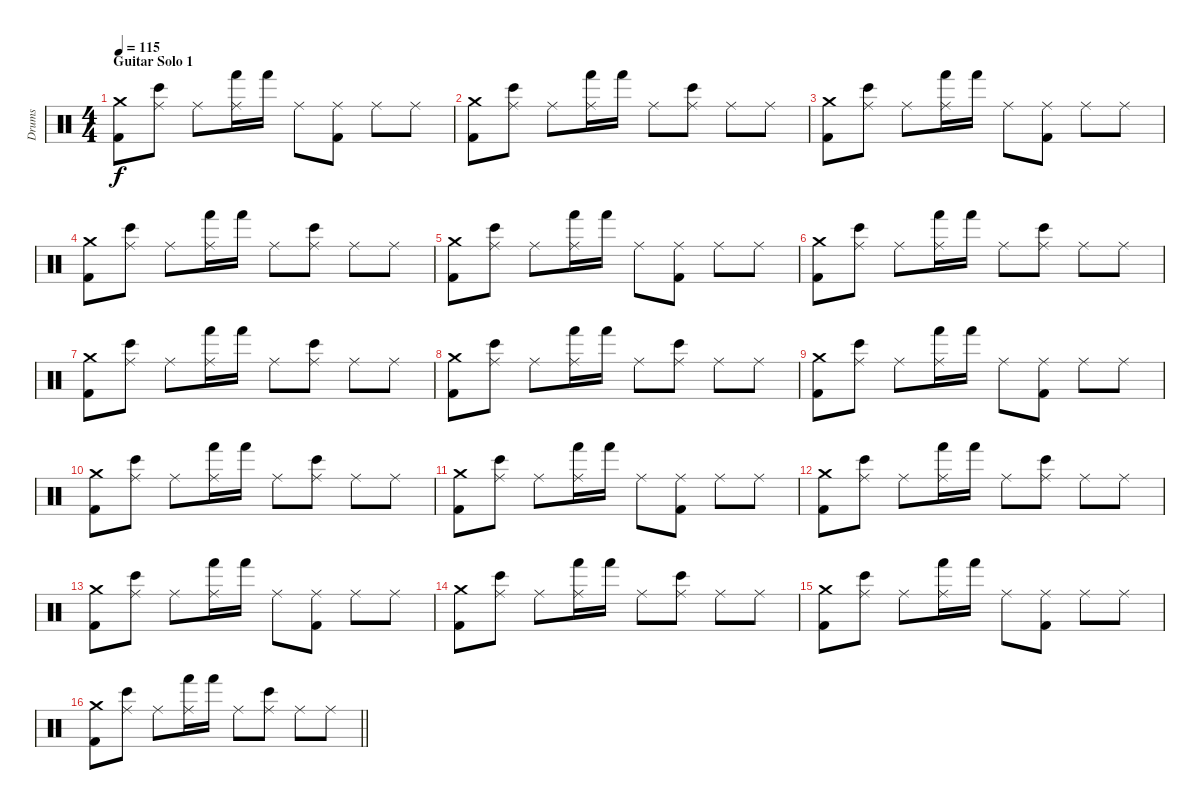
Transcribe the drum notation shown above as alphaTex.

\track ("Drums" "Drums") {instrument percussion}
\staff {score}
\articulation defaults
\ts (4 4)
\section ("" "Guitar Solo 1")
\tempo 115
\clef neutral
\ks c
("Crash medium (hit)" "Kick (hit) 2").8{dy f} ("Ride (middle)" "Bongo High (hit)").8 "Ride (middle)".8 ("Ride (middle)" "Hand (hit)").16 "Hand (hit)".16 "Ride (middle)".8 ("Ride (middle)" "Kick (hit) 2").8 "Ride (middle)".8 "Ride (middle)".8 |
("Crash medium (hit)" "Kick (hit) 2").8 ("Ride (middle)" "Bongo High (hit)").8 "Ride (middle)".8 ("Ride (middle)" "Hand (hit)").16 "Hand (hit)".16 "Ride (middle)".8 ("Ride (middle)" "Bongo High (hit)").8 "Ride (middle)".8 "Ride (middle)".8 |
("Crash medium (hit)" "Kick (hit) 2").8 ("Ride (middle)" "Bongo High (hit)").8 "Ride (middle)".8 ("Ride (middle)" "Hand (hit)").16 "Hand (hit)".16 "Ride (middle)".8 ("Ride (middle)" "Kick (hit) 2").8 "Ride (middle)".8 "Ride (middle)".8 |
("Crash medium (hit)" "Kick (hit) 2").8 ("Ride (middle)" "Bongo High (hit)").8 "Ride (middle)".8 ("Ride (middle)" "Hand (hit)").16 "Hand (hit)".16 "Ride (middle)".8 ("Ride (middle)" "Bongo High (hit)").8 "Ride (middle)".8 "Ride (middle)".8 |
("Crash medium (hit)" "Kick (hit) 2").8 ("Ride (middle)" "Bongo High (hit)").8 "Ride (middle)".8 ("Ride (middle)" "Hand (hit)").16 "Hand (hit)".16 "Ride (middle)".8 ("Ride (middle)" "Kick (hit) 2").8 "Ride (middle)".8 "Ride (middle)".8 |
("Crash medium (hit)" "Kick (hit) 2").8 ("Ride (middle)" "Bongo High (hit)").8 "Ride (middle)".8 ("Ride (middle)" "Hand (hit)").16 "Hand (hit)".16 "Ride (middle)".8 ("Ride (middle)" "Bongo High (hit)").8 "Ride (middle)".8 "Ride (middle)".8 |
("Crash medium (hit)" "Kick (hit) 2").8 ("Ride (middle)" "Bongo High (hit)").8 "Ride (middle)".8 ("Ride (middle)" "Hand (hit)").16 "Hand (hit)".16 "Ride (middle)".8 ("Ride (middle)" "Bongo High (hit)").8 "Ride (middle)".8 "Ride (middle)".8 |
("Crash medium (hit)" "Kick (hit) 2").8 ("Ride (middle)" "Bongo High (hit)").8 "Ride (middle)".8 ("Ride (middle)" "Hand (hit)").16 "Hand (hit)".16 "Ride (middle)".8 ("Ride (middle)" "Bongo High (hit)").8 "Ride (middle)".8 "Ride (middle)".8 |
("Crash medium (hit)" "Kick (hit) 2").8 ("Ride (middle)" "Bongo High (hit)").8 "Ride (middle)".8 ("Ride (middle)" "Hand (hit)").16 "Hand (hit)".16 "Ride (middle)".8 ("Ride (middle)" "Kick (hit) 2").8 "Ride (middle)".8 "Ride (middle)".8 |
("Crash medium (hit)" "Kick (hit) 2").8 ("Ride (middle)" "Bongo High (hit)").8 "Ride (middle)".8 ("Ride (middle)" "Hand (hit)").16 "Hand (hit)".16 "Ride (middle)".8 ("Ride (middle)" "Bongo High (hit)").8 "Ride (middle)".8 "Ride (middle)".8 |
("Crash medium (hit)" "Kick (hit) 2").8 ("Ride (middle)" "Bongo High (hit)").8 "Ride (middle)".8 ("Ride (middle)" "Hand (hit)").16 "Hand (hit)".16 "Ride (middle)".8 ("Ride (middle)" "Kick (hit) 2").8 "Ride (middle)".8 "Ride (middle)".8 |
("Crash medium (hit)" "Kick (hit) 2").8 ("Ride (middle)" "Bongo High (hit)").8 "Ride (middle)".8 ("Ride (middle)" "Hand (hit)").16 "Hand (hit)".16 "Ride (middle)".8 ("Ride (middle)" "Bongo High (hit)").8 "Ride (middle)".8 "Ride (middle)".8 |
("Crash medium (hit)" "Kick (hit) 2").8 ("Ride (middle)" "Bongo High (hit)").8 "Ride (middle)".8 ("Ride (middle)" "Hand (hit)").16 "Hand (hit)".16 "Ride (middle)".8 ("Ride (middle)" "Kick (hit) 2").8 "Ride (middle)".8 "Ride (middle)".8 |
("Crash medium (hit)" "Kick (hit) 2").8 ("Ride (middle)" "Bongo High (hit)").8 "Ride (middle)".8 ("Ride (middle)" "Hand (hit)").16 "Hand (hit)".16 "Ride (middle)".8 ("Ride (middle)" "Bongo High (hit)").8 "Ride (middle)".8 "Ride (middle)".8 |
("Crash medium (hit)" "Kick (hit) 2").8 ("Ride (middle)" "Bongo High (hit)").8 "Ride (middle)".8 ("Ride (middle)" "Hand (hit)").16 "Hand (hit)".16 "Ride (middle)".8 ("Ride (middle)" "Kick (hit) 2").8 "Ride (middle)".8 "Ride (middle)".8 |
\barLineRight lightlight
("Crash medium (hit)" "Kick (hit) 2").8 ("Ride (middle)" "Bongo High (hit)").8 "Ride (middle)".8 ("Ride (middle)" "Hand (hit)").16 "Hand (hit)".16 "Ride (middle)".8 ("Ride (middle)" "Bongo High (hit)").8 "Ride (middle)".8 "Ride (middle)".8
